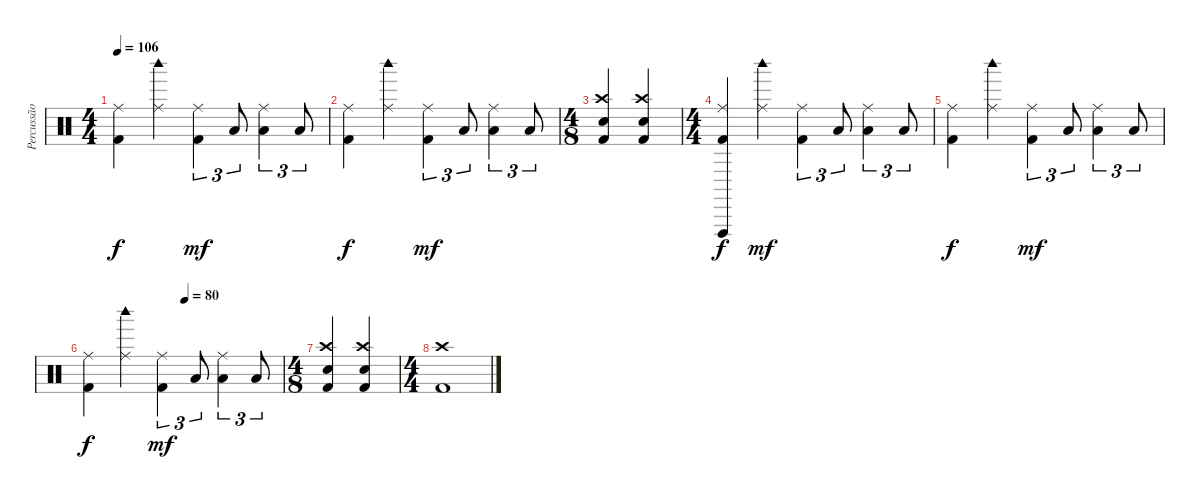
\track ("Percussão" "Percussão") {instrument percussion}
\staff {score}
\articulation defaults
\ts (4 4)
\tempo 106
\clef neutral
\ks c
("Ride (middle)" "Kick (hit) 2").4{dy f} ("Ride (middle)" "Woodblock high (hit)").4 ("Ride (middle)" "Kick (hit) 2").4{tu (3 2) dy mf} "Low Floor Tom (hit)".8{tu (3 2)} ("Ride (middle)" "Low Floor Tom (hit)").4{tu (3 2)} "Low Floor Tom (hit)".8{tu (3 2)} |
("Ride (middle)" "Kick (hit) 2").4{dy f} ("Ride (middle)" "Woodblock high (hit)").4 ("Ride (middle)" "Kick (hit) 2").4{tu (3 2) dy mf} "Low Floor Tom (hit)".8{tu (3 2)} ("Ride (middle)" "Low Floor Tom (hit)").4{tu (3 2)} "Low Floor Tom (hit)".8{tu (3 2)} |
\ts (4 8)
("Crash high (hit)" "Snare (hit) 2" "Kick (hit) 2").4 ("Crash high (hit)" "Snare (hit) 2" "Kick (hit) 2").4 |
\ts (4 4)
("Ride (middle)" "Vibraslap (hit)" "Kick (hit) 2").4{dy f} ("Ride (middle)" "Woodblock high (hit)").4{dy mf} ("Ride (middle)" "Kick (hit) 2").4{tu (3 2)} "Low Floor Tom (hit)".8{tu (3 2)} ("Ride (middle)" "Low Floor Tom (hit)").4{tu (3 2)} "Low Floor Tom (hit)".8{tu (3 2)} |
("Ride (middle)" "Kick (hit) 2").4{dy f} ("Ride (middle)" "Woodblock high (hit)").4 ("Ride (middle)" "Kick (hit) 2").4{tu (3 2) dy mf} "Low Floor Tom (hit)".8{tu (3 2)} ("Ride (middle)" "Low Floor Tom (hit)").4{tu (3 2)} "Low Floor Tom (hit)".8{tu (3 2)} |
\tempo (80 0.5)
("Ride (middle)" "Kick (hit) 2").4{dy f} ("Ride (middle)" "Woodblock high (hit)").4 ("Ride (middle)" "Kick (hit) 2").4{tu (3 2) dy mf} "Low Floor Tom (hit)".8{tu (3 2)} ("Ride (middle)" "Low Floor Tom (hit)").4{tu (3 2)} "Low Floor Tom (hit)".8{tu (3 2)} |
\ts (4 8)
("Crash high (hit)" "Snare (hit) 2" "Kick (hit) 2").4 ("Crash high (hit)" "Snare (hit) 2" "Kick (hit) 2").4 |
\ts (4 4)
("Crash high (hit)" "Kick (hit) 2").1
